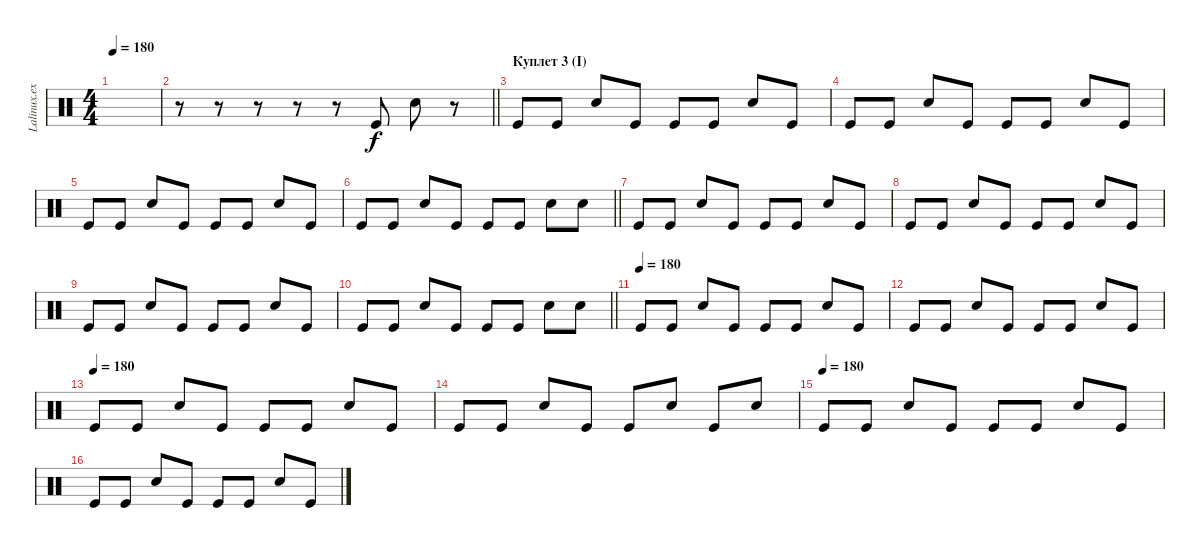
\track ("Lalinux.exe" "Lalinux.ex") {instrument percussion}
\staff {score}
\articulation defaults
\ts (4 4)
\tempo 180
\clef neutral
\ks c
|
\barLineRight lightlight
r.8 r.8 r.8 r.8 r.8 "Kick (hit)".8 "Electric Snare (hit)".8 r.8 |
\section ("" "Куплет 3 (I)")
"Kick (hit)".8 "Kick (hit)".8 "Electric Snare (hit)".8 "Kick (hit)".8 "Kick (hit)".8 "Kick (hit)".8 "Electric Snare (hit)".8 "Kick (hit)".8 |
"Kick (hit)".8 "Kick (hit)".8 "Electric Snare (hit)".8 "Kick (hit)".8 "Kick (hit)".8 "Kick (hit)".8 "Electric Snare (hit)".8 "Kick (hit)".8 |
"Kick (hit)".8 "Kick (hit)".8 "Electric Snare (hit)".8 "Kick (hit)".8 "Kick (hit)".8 "Kick (hit)".8 "Electric Snare (hit)".8 "Kick (hit)".8 |
\barLineRight lightlight "Kick (hit)".8 "Kick (hit)".8 "Electric Snare (hit)".8 "Kick (hit)".8 "Kick (hit)".8 "Kick (hit)".8 "Electric Snare (hit)".8 "Electric Snare (hit)".8
|
"Kick (hit)".8 "Kick (hit)".8 "Electric Snare (hit)".8 "Kick (hit)".8 "Kick (hit)".8 "Kick (hit)".8 "Electric Snare (hit)".8 "Kick (hit)".8 |
"Kick (hit)".8 "Kick (hit)".8 "Electric Snare (hit)".8 "Kick (hit)".8 "Kick (hit)".8 "Kick (hit)".8 "Electric Snare (hit)".8 "Kick (hit)".8 |
"Kick (hit)".8 "Kick (hit)".8 "Electric Snare (hit)".8 "Kick (hit)".8 "Kick (hit)".8 "Kick (hit)".8 "Electric Snare (hit)".8 "Kick (hit)".8 |
\barLineRight lightlight "Kick (hit)".8 "Kick (hit)".8 "Electric Snare (hit)".8 "Kick (hit)".8 "Kick (hit)".8 "Kick (hit)".8 "Electric Snare (hit)".8 "Electric Snare (hit)".8
|
\section ("" "")
\tempo (180)
"Kick (hit)".8 "Kick (hit)".8 "Electric Snare (hit)".8 "Kick (hit)".8 "Kick (hit)".8 "Kick (hit)".8 "Electric Snare (hit)".8 "Kick (hit)".8 |
"Kick (hit)".8 "Kick (hit)".8 "Electric Snare (hit)".8 "Kick (hit)".8 "Kick (hit)".8 "Kick (hit)".8 "Electric Snare (hit)".8 "Kick (hit)".8 |
\tempo (180)
"Kick (hit)".8 "Kick (hit)".8 "Electric Snare (hit)".8 "Kick (hit)".8 "Kick (hit)".8 "Kick (hit)".8 "Electric Snare (hit)".8 "Kick (hit)".8 |
"Kick (hit)".8 "Kick (hit)".8 "Electric Snare (hit)".8 "Kick (hit)".8 "Kick (hit)".8 "Electric Snare (hit)".8 "Kick (hit)".8 "Electric Snare (hit)".8 |
\tempo (180)
"Kick (hit)".8 "Kick (hit)".8 "Electric Snare (hit)".8 "Kick (hit)".8 "Kick (hit)".8 "Kick (hit)".8 "Electric Snare (hit)".8 "Kick (hit)".8 |
"Kick (hit)".8 "Kick (hit)".8 "Electric Snare (hit)".8 "Kick (hit)".8 "Kick (hit)".8 "Kick (hit)".8 "Electric Snare (hit)".8 "Kick (hit)".8
